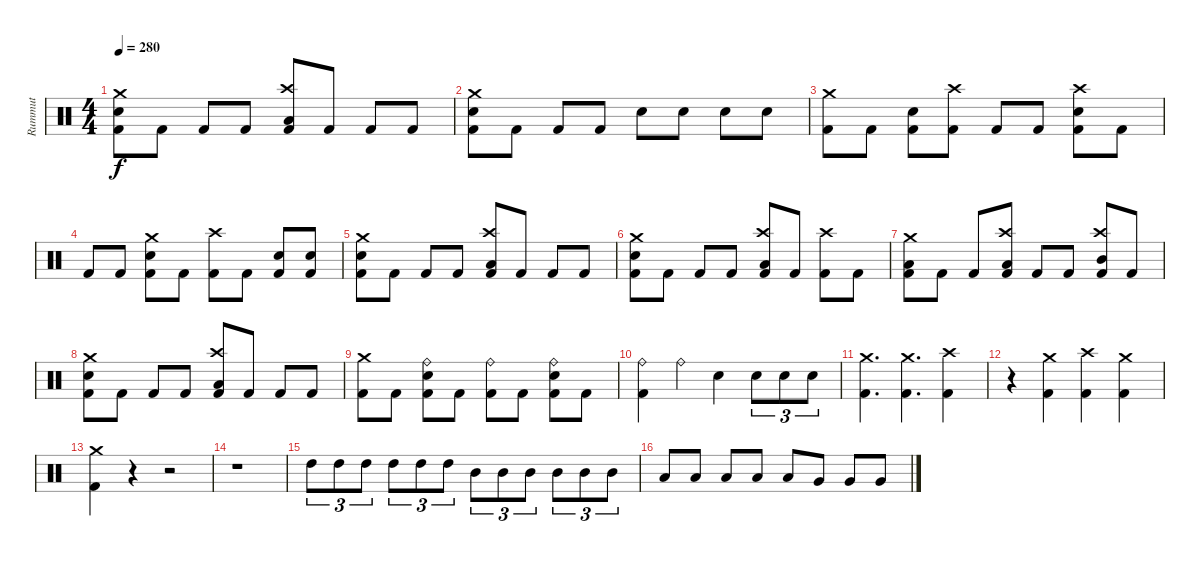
\track ("Rummut" "Rummut") {instrument percussion}
\staff {score}
\articulation defaults
\ts (4 4)
\tempo 280
\clef neutral
\ks c
("Crash medium (hit)" "Snare (hit) 2" "Kick (hit) 2").8{dy f} "Kick (hit) 2".8 "Kick (hit) 2".8 "Kick (hit) 2".8 ("Crash high (hit)" "Low Tom (hit)" "Kick (hit) 2").8 "Kick (hit) 2".8 "Kick (hit) 2".8 "Kick (hit) 2".8 |
("Crash medium (hit)" "Snare (hit) 2" "Kick (hit) 2").8 "Kick (hit) 2".8 "Kick (hit) 2".8 "Kick (hit) 2".8 "Snare (hit) 2".8 "Snare (hit) 2".8 "Snare (hit) 2".8 "Snare (hit) 2".8 |
("Crash medium (hit)" "Kick (hit) 2").8 "Kick (hit) 2".8 ("Snare (hit) 2" "Kick (hit) 2").8 ("Crash high (hit)" "Kick (hit) 2").8 "Kick (hit) 2".8 "Kick (hit) 2".8 ("Crash high (hit)" "Snare (hit) 2" "Kick (hit) 2").8 "Kick (hit) 2".8 |
"Kick (hit) 2".8 "Kick (hit) 2".8 ("Crash medium (hit)" "Snare (hit) 2" "Kick (hit) 2").8 "Kick (hit) 2".8 ("Crash high (hit)" "Kick (hit) 2").8 "Kick (hit) 2".8 ("Snare (hit) 2" "Kick (hit) 2").8 ("Snare (hit) 2" "Kick (hit) 2").8 |
("Crash medium (hit)" "Snare (hit) 2" "Kick (hit) 2").8 "Kick (hit) 2".8 "Kick (hit) 2".8 "Kick (hit) 2".8 ("Crash high (hit)" "Low Tom (hit)" "Kick (hit) 2").8 "Kick (hit) 2".8 "Kick (hit) 2".8 "Kick (hit) 2".8 |
("Crash medium (hit)" "Snare (hit) 2" "Kick (hit) 2").8 "Kick (hit) 2".8 "Kick (hit) 2".8 "Kick (hit) 2".8 ("Crash high (hit)" "Low Tom (hit)" "Kick (hit) 2").8 "Kick (hit) 2".8 ("Crash high (hit)" "Kick (hit) 2").8 "Kick (hit) 2".8 |
("Crash medium (hit)" "Low Tom (hit)" "Kick (hit) 2").8 "Kick (hit) 2".8 "Kick (hit) 2".8 ("Crash high (hit)" "Low Tom (hit)" "Kick (hit) 2").8 "Kick (hit) 2".8 "Kick (hit) 2".8 ("Crash high (hit)" "Mid Tom (hit)" "Kick (hit) 2").8 "Kick (hit) 2".8 |
("Crash medium (hit)" "Snare (hit) 2" "Kick (hit) 2").8 "Kick (hit) 2".8 "Kick (hit) 2".8 "Kick (hit) 2".8 ("Crash high (hit)" "Low Tom (hit)" "Kick (hit) 2").8 "Kick (hit) 2".8 "Kick (hit) 2".8 "Kick (hit) 2".8 |
("Crash medium (hit)" "Kick (hit) 2").8 "Kick (hit) 2".8 ("Ride (bell)" "Snare (hit) 2" "Kick (hit) 2").8 "Kick (hit) 2".8 ("Ride (bell)" "Kick (hit) 2").8 "Kick (hit) 2".8 ("Ride (bell)" "Snare (hit) 2" "Kick (hit) 2").8 "Kick (hit) 2".8 |
("Ride (bell)" "Kick (hit) 2").4 "Ride (bell)".4 "Snare (hit) 2".4 "Snare (hit) 2".8{tu (3 2)} "Snare (hit) 2".8{tu (3 2)} "Snare (hit) 2".8{tu (3 2)} |
("Crash medium (hit)" "Kick (hit) 2").4{d} ("Crash medium (hit)" "Kick (hit) 2").4{d} ("Crash high (hit)" "Kick (hit) 2").4 |
r.4 ("Crash medium (hit)" "Kick (hit) 2").4 ("Crash high (hit)" "Kick (hit) 2").4 ("Crash medium (hit)" "Kick (hit) 2").4 |
("Crash medium (hit)" "Kick (hit) 2").4 r.4 r.2 |
r.1 |
"High Tom (hit)".8{tu (3 2)} "High Tom (hit)".8{tu (3 2)} "High Tom (hit)".8{tu (3 2)} "High Tom (hit)".8{tu (3 2)} "High Tom (hit)".8{tu (3 2)} "High Tom (hit)".8{tu (3 2)} "Mid Tom (hit)".8{tu (3 2)} "Mid Tom (hit)".8{tu (3 2)} "Mid Tom (hit)".8{tu (3 2)} "Mid Tom (hit)".8{tu (3 2)} "Mid Tom (hit)".8{tu (3 2)} "Mid Tom (hit)".8{tu (3 2)} |
"Low Tom (hit)".8 "Low Tom (hit)".8 "Low Tom (hit)".8 "Low Tom (hit)".8 "Low Tom (hit)".8 "Very Low Tom (hit)".8 "Very Low Tom (hit)".8 "Very Low Tom (hit)".8
